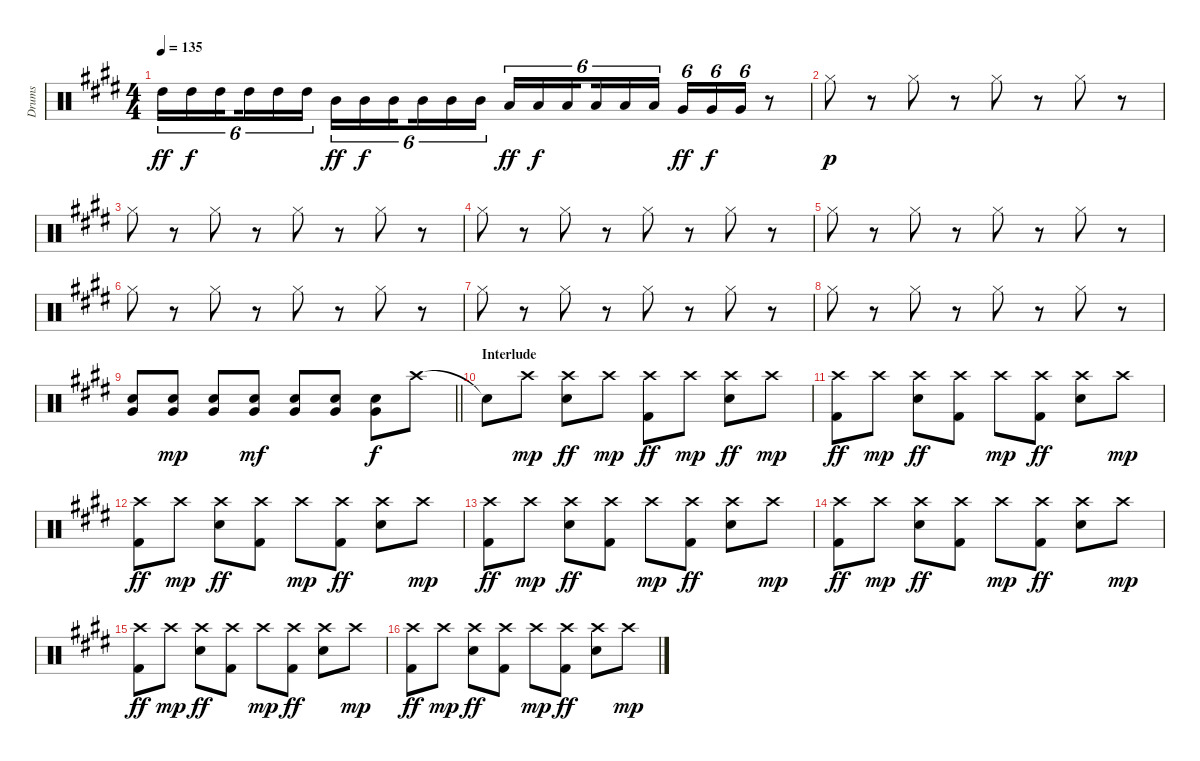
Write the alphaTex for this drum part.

\track ("Drums" "Drums") {instrument percussion}
\staff {score}
\articulation defaults
\ts (4 4)
\tempo 135
\clef neutral
\ks e "High Tom (hit)".16{tu (6 4) dy ff} "High Tom (hit)".16{tu (6 4) dy f} "High Tom (hit)".16{tu (6 4) beam splitsecondary} "High Tom (hit)".16{tu (6 4)} "High Tom (hit)".16{tu (6 4)} "High Tom (hit)".16{tu (6 4)} "Mid Tom (hit)".16{tu (6 4) dy ff} "Mid Tom (hit)".16{tu (6 4) dy f} "Mid Tom (hit)".16{tu (6 4) beam splitsecondary} "Mid Tom (hit)".16{tu (6 4)} "Mid Tom (hit)".16{tu (6 4)} "Mid Tom (hit)".16{tu (6 4)} "Low Tom (hit)".16{tu (6 4) dy ff} "Low Tom (hit)".16{tu (6 4) dy f} "Low Tom (hit)".16{tu (6 4) beam splitsecondary} "Low Tom (hit)".16{tu (6 4)} "Low Tom (hit)".16{tu (6 4)} "Low Tom (hit)".16{tu (6 4)} "Very Low Tom (hit)".16{tu (6 4) dy ff} "Very Low Tom (hit)".16{tu (6 4) dy f} "Very Low Tom (hit)".16{tu (6 4)}
r.8 |
"Hi-Hat (closed)".8{dy p} r.8 "Hi-Hat (closed)".8 r.8 "Hi-Hat (closed)".8 r.8 "Hi-Hat (closed)".8 r.8 |
"Hi-Hat (closed)".8 r.8 "Hi-Hat (closed)".8 r.8 "Hi-Hat (closed)".8 r.8 "Hi-Hat (closed)".8 r.8 |
"Hi-Hat (closed)".8 r.8 "Hi-Hat (closed)".8 r.8 "Hi-Hat (closed)".8 r.8 "Hi-Hat (closed)".8 r.8 |
"Hi-Hat (closed)".8 r.8 "Hi-Hat (closed)".8 r.8 "Hi-Hat (closed)".8 r.8 "Hi-Hat (closed)".8 r.8 |
"Hi-Hat (closed)".8 r.8 "Hi-Hat (closed)".8 r.8 "Hi-Hat (closed)".8 r.8 "Hi-Hat (closed)".8 r.8 |
"Hi-Hat (closed)".8 r.8 "Hi-Hat (closed)".8 r.8 "Hi-Hat (closed)".8 r.8 "Hi-Hat (closed)".8 r.8 |
"Hi-Hat (closed)".8 r.8 "Hi-Hat (closed)".8 r.8 "Hi-Hat (closed)".8 r.8 "Hi-Hat (closed)".8 r.8 |
\barLineRight lightlight
("Snare (hit) 2" "Very Low Tom (hit)").8 ("Snare (hit) 2" "Very Low Tom (hit)").8{dy mp} ("Snare (hit) 2" "Very Low Tom (hit)").8 ("Snare (hit) 2" "Very Low Tom (hit)").8{dy mf} ("Snare (hit) 2" "Very Low Tom (hit)").8 ("Snare (hit) 2" "Very Low Tom (hit)").8 ("Snare (hit) 2" "Very Low Tom (hit)").8{dy f} "Crash high (hit)".8 |
\section ("" "Interlude")
"Snare (hit)"{t}.8 "Crash high (hit)".8{dy mp} ("Crash high (hit)" "Snare (hit) 2").8{dy ff} "Crash high (hit)".8{dy mp} ("Crash high (hit)" "Kick (hit) 2").8{dy ff} "Crash high (hit)".8{dy mp} ("Crash high (hit)" "Snare (hit) 2").8{dy ff} "Crash high (hit)".8{dy mp} |
("Crash high (hit)" "Kick (hit) 2").8{dy ff} "Crash high (hit)".8{dy mp} ("Crash high (hit)" "Snare (hit) 2").8{dy ff} ("Crash high (hit)" "Kick (hit) 2").8 "Crash high (hit)".8{dy mp} ("Crash high (hit)" "Kick (hit) 2").8{dy ff} ("Crash high (hit)" "Snare (hit) 2").8 "Crash high (hit)".8{dy mp} |
("Crash high (hit)" "Kick (hit) 2").8{dy ff} "Crash high (hit)".8{dy mp} ("Crash high (hit)" "Snare (hit) 2").8{dy ff} ("Crash high (hit)" "Kick (hit) 2").8 "Crash high (hit)".8{dy mp} ("Crash high (hit)" "Kick (hit) 2").8{dy ff} ("Crash high (hit)" "Snare (hit) 2").8 "Crash high (hit)".8{dy mp} |
("Crash high (hit)" "Kick (hit) 2").8{dy ff} "Crash high (hit)".8{dy mp} ("Crash high (hit)" "Snare (hit) 2").8{dy ff} ("Crash high (hit)" "Kick (hit) 2").8 "Crash high (hit)".8{dy mp} ("Crash high (hit)" "Kick (hit) 2").8{dy ff} ("Crash high (hit)" "Snare (hit) 2").8 "Crash high (hit)".8{dy mp} |
("Crash high (hit)" "Kick (hit) 2").8{dy ff} "Crash high (hit)".8{dy mp} ("Crash high (hit)" "Snare (hit) 2").8{dy ff} ("Crash high (hit)" "Kick (hit) 2").8 "Crash high (hit)".8{dy mp} ("Crash high (hit)" "Kick (hit) 2").8{dy ff} ("Crash high (hit)" "Snare (hit) 2").8 "Crash high (hit)".8{dy mp} |
("Crash high (hit)" "Kick (hit) 2").8{dy ff} "Crash high (hit)".8{dy mp} ("Crash high (hit)" "Snare (hit) 2").8{dy ff} ("Crash high (hit)" "Kick (hit) 2").8 "Crash high (hit)".8{dy mp} ("Crash high (hit)" "Kick (hit) 2").8{dy ff} ("Crash high (hit)" "Snare (hit) 2").8 "Crash high (hit)".8{dy mp} |
("Crash high (hit)" "Kick (hit) 2").8{dy ff} "Crash high (hit)".8{dy mp} ("Crash high (hit)" "Snare (hit) 2").8{dy ff} ("Crash high (hit)" "Kick (hit) 2").8 "Crash high (hit)".8{dy mp} ("Crash high (hit)" "Kick (hit) 2").8{dy ff} ("Crash high (hit)" "Snare (hit) 2").8 "Crash high (hit)".8{dy mp}
